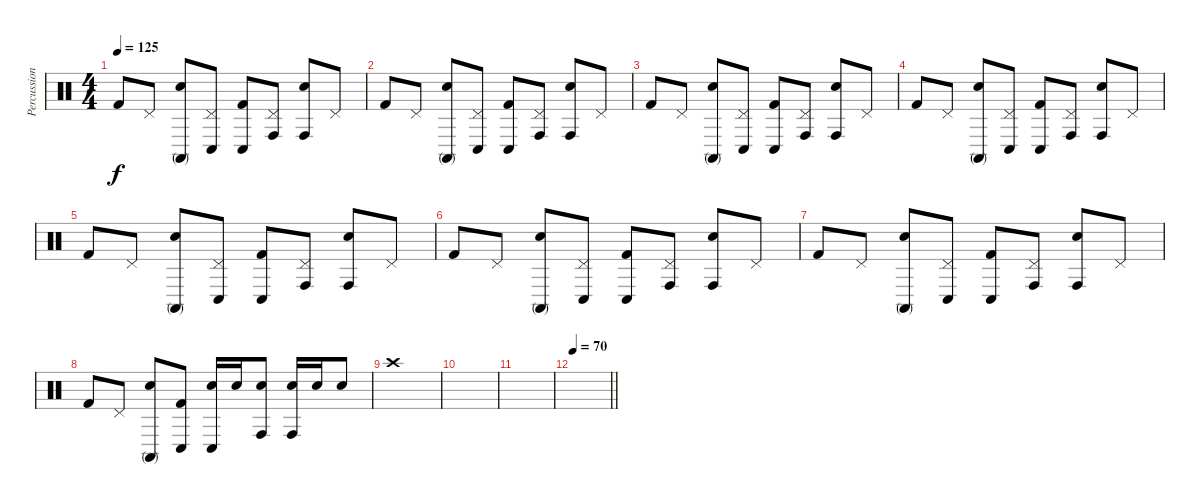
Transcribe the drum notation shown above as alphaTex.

\track ("Percussion" "Percussion") {instrument percussion}
\staff {score}
\articulation defaults
\ts (4 4)
\tempo 125
\clef neutral
\ks c "Kick (hit) 2".8{dy f} "Pedal Hi-Hat (hit)".8
("Snare (hit) 2" "Conga high (mute)").8 ("Pedal Hi-Hat (hit)" "Conga low (hit)").8 ("Kick (hit) 2" "Conga low (hit)").8 ("Pedal Hi-Hat (hit)" "Conga high (hit)").8 ("Snare (hit) 2" "Conga high (hit)").8 "Pedal Hi-Hat (hit)".8 |
"Kick (hit) 2".8 "Pedal Hi-Hat (hit)".8 ("Snare (hit) 2" "Conga high (mute)").8 ("Pedal Hi-Hat (hit)" "Conga low (hit)").8 ("Kick (hit) 2" "Conga low (hit)").8 ("Pedal Hi-Hat (hit)" "Conga high (hit)").8 ("Snare (hit) 2" "Conga high (hit)").8 "Pedal Hi-Hat (hit)".8 |
"Kick (hit) 2".8 "Pedal Hi-Hat (hit)".8 ("Snare (hit) 2" "Conga high (mute)").8 ("Pedal Hi-Hat (hit)" "Conga low (hit)").8 ("Kick (hit) 2" "Conga low (hit)").8 ("Pedal Hi-Hat (hit)" "Conga high (hit)").8 ("Snare (hit) 2" "Conga high (hit)").8 "Pedal Hi-Hat (hit)".8 |
"Kick (hit) 2".8 "Pedal Hi-Hat (hit)".8 ("Snare (hit) 2" "Conga high (mute)").8 ("Pedal Hi-Hat (hit)" "Conga low (hit)").8 ("Kick (hit) 2" "Conga low (hit)").8 ("Pedal Hi-Hat (hit)" "Conga high (hit)").8 ("Snare (hit) 2" "Conga high (hit)").8 "Pedal Hi-Hat (hit)".8 |
"Kick (hit) 2".8 "Pedal Hi-Hat (hit)".8 ("Snare (hit) 2" "Conga high (mute)").8 ("Pedal Hi-Hat (hit)" "Conga low (hit)").8 ("Kick (hit) 2" "Conga low (hit)").8 ("Pedal Hi-Hat (hit)" "Conga high (hit)").8 ("Snare (hit) 2" "Conga high (hit)").8 "Pedal Hi-Hat (hit)".8 |
"Kick (hit) 2".8 "Pedal Hi-Hat (hit)".8 ("Snare (hit) 2" "Conga high (mute)").8 ("Pedal Hi-Hat (hit)" "Conga low (hit)").8 ("Kick (hit) 2" "Conga low (hit)").8 ("Pedal Hi-Hat (hit)" "Conga high (hit)").8 ("Snare (hit) 2" "Conga high (hit)").8 "Pedal Hi-Hat (hit)".8 |
"Kick (hit) 2".8 "Pedal Hi-Hat (hit)".8 ("Snare (hit) 2" "Conga high (mute)").8 ("Pedal Hi-Hat (hit)" "Conga low (hit)").8 ("Kick (hit) 2" "Conga low (hit)").8 ("Pedal Hi-Hat (hit)" "Conga high (hit)").8 ("Snare (hit) 2" "Conga high (hit)").8 "Pedal Hi-Hat (hit)".8 |
"Kick (hit) 2".8 "Pedal Hi-Hat (hit)".8 ("Snare (hit) 2" "Conga high (mute)").8 ("Kick (hit) 2" "Conga low (hit)").8 ("Snare (hit) 2" "Conga low (hit)").16 "Snare (hit) 2".16 ("Snare (hit) 2" "Conga high (hit)").8 ("Snare (hit) 2" "Conga high (hit)").16 "Snare (hit) 2".16 "Snare (hit) 2".8 |
"Crash high (hit)".1 |
|
|
\tempo 70
\barLineRight lightlight
